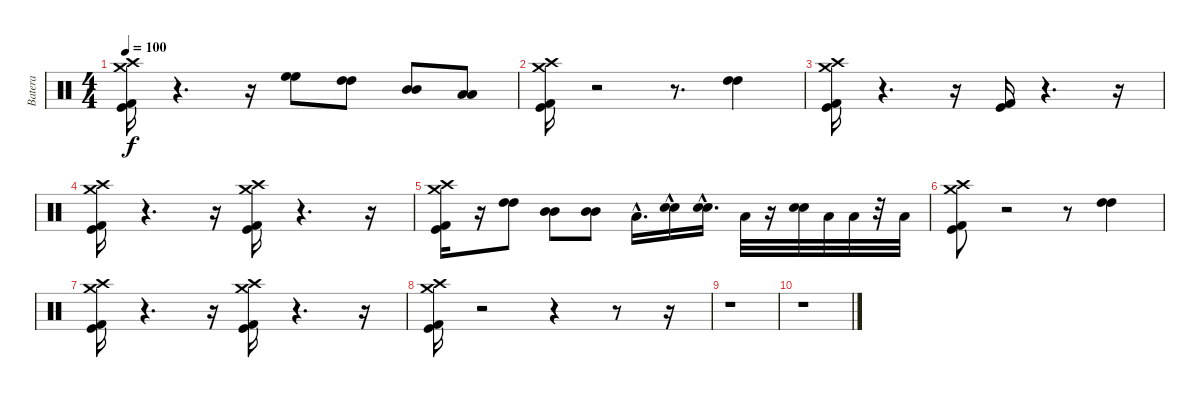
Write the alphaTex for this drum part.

\track ("Batera" "Batera") {instrument percussion}
\staff {score}
\articulation defaults
\ts (4 4)
\tempo 100
\clef neutral
\ks c
("Crash high (hit)" "Crash medium (hit)" "Kick (hit) 2" "Kick (hit)").16{dy f} r.4{d} r.16 ("High Floor Tom (hit)" "High Floor Tom (hit)").8 ("High Tom (hit)" "High Tom (hit)").8 ("Mid Tom (hit)" "Mid Tom (hit)").8 ("Low Tom (hit)" "Low Tom (hit)").8 |
("Crash high (hit)" "Crash medium (hit)" "Kick (hit) 2" "Kick (hit)").16 r.2 r.8{d} ("High Tom (hit)" "High Tom (hit)").4 |
("Crash high (hit)" "Crash medium (hit)" "Kick (hit) 2" "Kick (hit)").16 r.4{d} r.16 ("Kick (hit) 2" "Kick (hit)").16 r.4{d} r.16 |
("Crash high (hit)" "Crash medium (hit)" "Kick (hit) 2" "Kick (hit)").16 r.4{d} r.16 ("Crash high (hit)" "Crash medium (hit)" "Kick (hit) 2" "Kick (hit)").16 r.4{d} r.16 |
("Crash medium (hit)" "Crash high (hit)" "Kick (hit) 2" "Kick (hit)").16 r.16 ("High Tom (hit)" "High Tom (hit)").8 ("Mid Tom (hit)" "Mid Tom (hit)").8 ("Mid Tom (hit)" "Mid Tom (hit)").8 "Low Tom (hit)"{hac}.16{d} ("Electric Snare (hit)"{hac} "Snare (hit) 2"{hac}).16 ("Electric Snare (hit)"{hac} "Snare (hit) 2"{hac}).16{d} "Low Tom (hit)".32 r.16 ("Electric Snare (hit)" "Snare (hit) 2").32 "Low Tom (hit)".32 "Low Floor Tom (hit)".32 r.32 "Low Floor Tom (hit)".32 |
("Crash high (hit)" "Crash medium (hit)" "Kick (hit)" "Kick (hit) 2").8 r.2 r.8 ("High Tom (hit)" "High Tom (hit)").4 |
("Crash medium (hit)" "Crash high (hit)" "Kick (hit) 2" "Kick (hit)").16 r.4{d} r.16 ("Crash medium (hit)" "Crash high (hit)" "Kick (hit)" "Kick (hit) 2").16 r.4{d} r.16 |
("Crash medium (hit)" "Crash high (hit)" "Kick (hit) 2" "Kick (hit)").16 r.2 r.4 r.8 r.16 |
r.1 |
r.1
